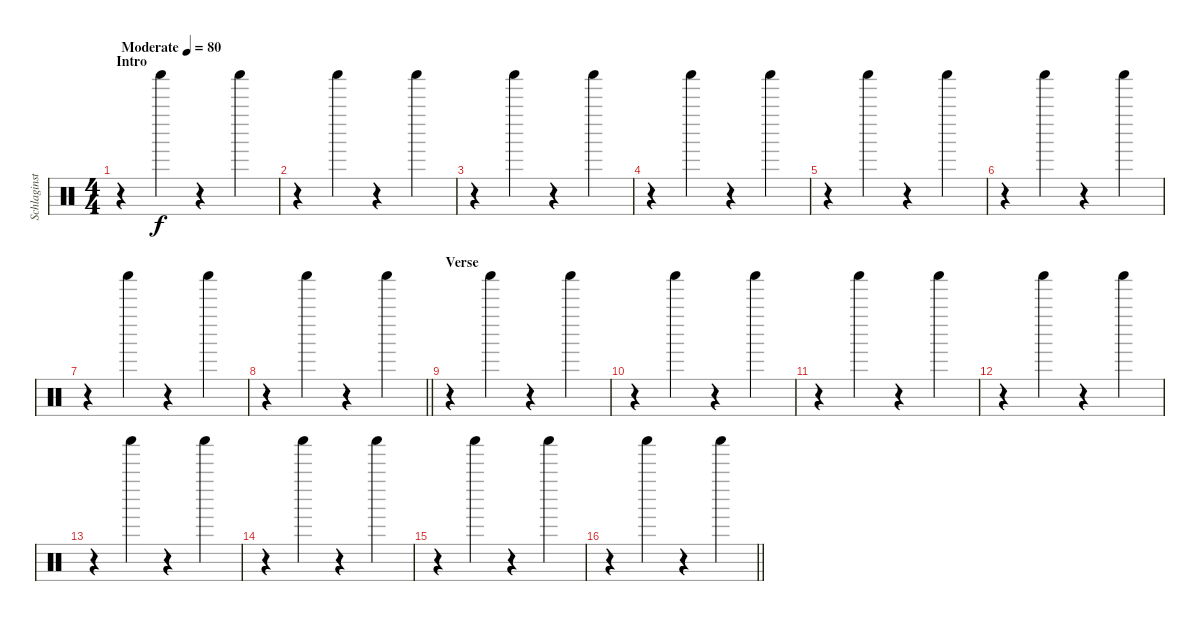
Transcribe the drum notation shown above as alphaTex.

\track ("Schlaginstrumente - Auswahl" "Schlaginst") {instrument percussion}
\staff {score}
\articulation defaults
\ts (4 4)
\section ("" "Intro")
\tempo (80 "Moderate")
\clef neutral
\ks c
r.4{dy f} "Shaker (hit)".4 r.4 "Shaker (hit)".4 |
r.4 "Shaker (hit)".4 r.4 "Shaker (hit)".4 |
r.4 "Shaker (hit)".4 r.4 "Shaker (hit)".4 |
r.4 "Shaker (hit)".4 r.4 "Shaker (hit)".4 |
r.4 "Shaker (hit)".4 r.4 "Shaker (hit)".4 |
r.4 "Shaker (hit)".4 r.4 "Shaker (hit)".4 |
r.4 "Shaker (hit)".4 r.4 "Shaker (hit)".4 |
\barLineRight lightlight
r.4 "Shaker (hit)".4 r.4 "Shaker (hit)".4 |
\section ("" "Verse")
r.4 "Shaker (hit)".4 r.4 "Shaker (hit)".4 |
r.4 "Shaker (hit)".4 r.4 "Shaker (hit)".4 |
r.4 "Shaker (hit)".4 r.4 "Shaker (hit)".4 |
r.4 "Shaker (hit)".4 r.4 "Shaker (hit)".4 |
r.4 "Shaker (hit)".4 r.4 "Shaker (hit)".4 |
r.4 "Shaker (hit)".4 r.4 "Shaker (hit)".4 |
r.4 "Shaker (hit)".4 r.4 "Shaker (hit)".4 |
\barLineRight lightlight
r.4 "Shaker (hit)".4 r.4 "Shaker (hit)".4
